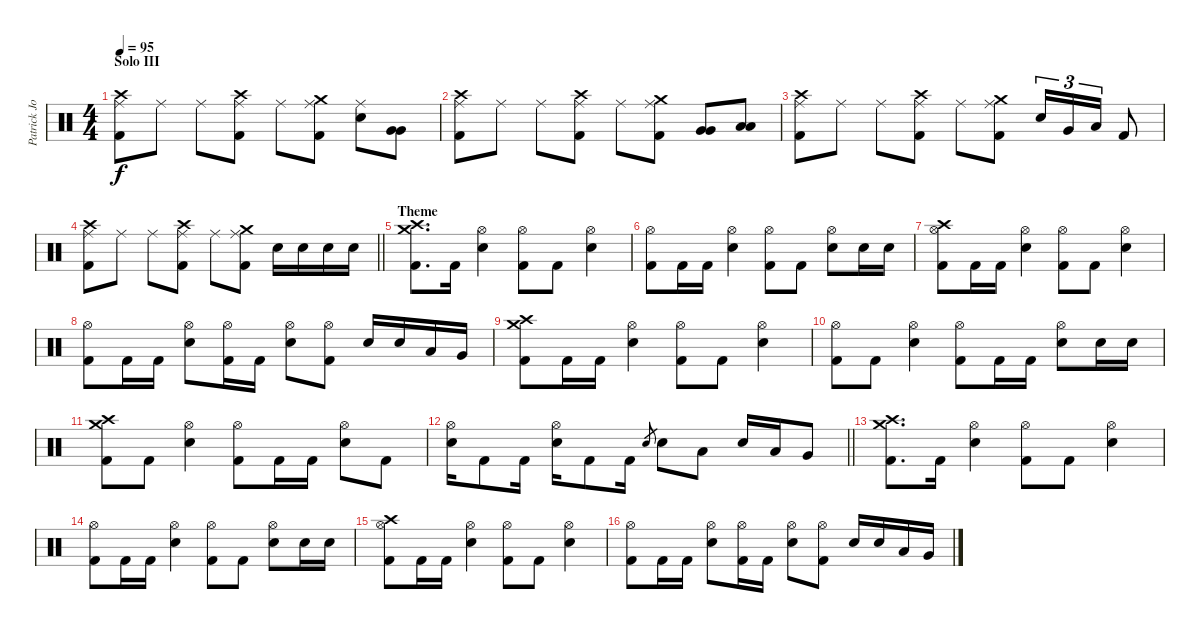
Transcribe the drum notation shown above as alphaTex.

\track ("Patrick Johansson" "Patrick Jo") {instrument percussion}
\staff {score}
\articulation defaults
\ts (4 4)
\section ("" "Solo III")
\tempo 95
\clef neutral
\ks c
("Crash high (hit)" "Ride (middle)" "Kick (hit) 2").8{dy f} "Ride (middle)".8 "Ride (middle)".8 ("Crash high (hit)" "Ride (middle)" "Kick (hit) 2").8 "Ride (middle)".8 ("Crash medium (hit)" "Ride (middle)" "Kick (hit) 2").8 ("Ride (middle)" "Snare (hit) 2").8 ("Very Low Tom (hit)" "Very Low Tom (hit)").8 |
("Crash high (hit)" "Ride (middle)" "Kick (hit) 2").8 "Ride (middle)".8 "Ride (middle)".8 ("Crash high (hit)" "Ride (middle)" "Kick (hit) 2").8 "Ride (middle)".8 ("Crash medium (hit)" "Ride (middle)" "Kick (hit) 2").8 ("Very Low Tom (hit)" "Very Low Tom (hit)").8 ("Low Floor Tom (hit)" "Low Floor Tom (hit)").8 |
("Crash high (hit)" "Ride (middle)" "Kick (hit) 2").8 "Ride (middle)".8 "Ride (middle)".8 ("Crash high (hit)" "Ride (middle)" "Kick (hit) 2").8 "Ride (middle)".8 ("Crash medium (hit)" "Ride (middle)" "Kick (hit) 2").8 "Snare (hit) 2".16{tu (3 2)} "Very Low Tom (hit)".16{tu (3 2)} "Low Floor Tom (hit)".16{tu (3 2)} "Kick (hit) 2".8 |
\barLineRight lightlight
("Crash high (hit)" "Ride (middle)" "Kick (hit) 2").8 "Ride (middle)".8 "Ride (middle)".8 ("Crash high (hit)" "Ride (middle)" "Kick (hit) 2").8 "Ride (middle)".8 ("Crash medium (hit)" "Ride (middle)" "Kick (hit) 2").8 "Snare (hit) 2".16 "Snare (hit) 2".16 "Snare (hit) 2".16 "Snare (hit) 2".16 |
\section ("" "Theme")
("Crash high (hit)" "Crash medium (hit)" "Kick (hit) 2").8{d} "Kick (hit) 2".16 ("Hi-Hat (open)" "Snare (hit) 2").4 ("Hi-Hat (open)" "Kick (hit) 2").8 "Kick (hit) 2".8 ("Hi-Hat (open)" "Snare (hit) 2").4 |
("Hi-Hat (open)" "Kick (hit) 2").8 "Kick (hit) 2".16 "Kick (hit) 2".16 ("Hi-Hat (open)" "Snare (hit) 2").4 ("Hi-Hat (open)" "Kick (hit) 2").8 "Kick (hit) 2".8 ("Hi-Hat (open)" "Snare (hit) 2").8 "Snare (hit) 2".16 "Snare (hit) 2".16 |
("Crash high (hit)" "Hi-Hat (open)" "Kick (hit) 2").8 "Kick (hit) 2".16 "Kick (hit) 2".16 ("Hi-Hat (open)" "Snare (hit) 2").4 ("Hi-Hat (open)" "Kick (hit) 2").8 "Kick (hit) 2".8 ("Hi-Hat (open)" "Snare (hit) 2").4 |
("Hi-Hat (open)" "Kick (hit) 2").8 "Kick (hit) 2".16 "Kick (hit) 2".16 ("Hi-Hat (open)" "Snare (hit) 2").8 ("Hi-Hat (open)" "Kick (hit) 2").16 "Kick (hit) 2".16 ("Hi-Hat (open)" "Snare (hit) 2").8 ("Hi-Hat (open)" "Kick (hit) 2").8 "Snare (hit) 2".16 "Snare (hit) 2".16 "Low Tom (hit)".16 "Very Low Tom (hit)".16 |
("Crash high (hit)" "Crash medium (hit)" "Kick (hit) 2").8 "Kick (hit) 2".16 "Kick (hit) 2".16 ("Hi-Hat (open)" "Snare (hit) 2").4 ("Hi-Hat (open)" "Kick (hit) 2").8 "Kick (hit) 2".8 ("Hi-Hat (open)" "Snare (hit) 2").4 |
("Hi-Hat (open)" "Kick (hit) 2").8 "Kick (hit) 2".8 ("Hi-Hat (open)" "Snare (hit) 2").4 ("Hi-Hat (open)" "Kick (hit) 2").8 "Kick (hit) 2".16 "Kick (hit) 2".16 ("Hi-Hat (open)" "Snare (hit) 2").8 "Snare (hit) 2".16 "Snare (hit) 2".16 |
("Crash medium (hit)" "Crash high (hit)" "Kick (hit) 2").8 "Kick (hit) 2".8 ("Hi-Hat (open)" "Snare (hit) 2").4 ("Hi-Hat (open)" "Kick (hit) 2").8 "Kick (hit) 2".16 "Kick (hit) 2".16 ("Hi-Hat (open)" "Snare (hit) 2").8 "Kick (hit) 2".8 |
\barLineRight lightlight
("Hi-Hat (open)" "Snare (hit) 2").16 "Kick (hit) 2".8 "Kick (hit) 2".16 ("Hi-Hat (open)" "Snare (hit) 2").16 "Kick (hit) 2".8 "Kick (hit) 2".16 "Snare (hit) 2".8{gr} "Snare (hit) 2".8 "Low Floor Tom (hit)".8 "Snare (hit) 2".16 "Low Tom (hit)".16 "Very Low Tom (hit)".8 |
("Crash high (hit)" "Crash medium (hit)" "Kick (hit) 2").8{d} "Kick (hit) 2".16 ("Hi-Hat (open)" "Snare (hit) 2").4 ("Hi-Hat (open)" "Kick (hit) 2").8 "Kick (hit) 2".8 ("Hi-Hat (open)" "Snare (hit) 2").4 |
("Hi-Hat (open)" "Kick (hit) 2").8 "Kick (hit) 2".16 "Kick (hit) 2".16 ("Hi-Hat (open)" "Snare (hit) 2").4 ("Hi-Hat (open)" "Kick (hit) 2").8 "Kick (hit) 2".8 ("Hi-Hat (open)" "Snare (hit) 2").8 "Snare (hit) 2".16 "Snare (hit) 2".16 |
("Crash high (hit)" "Hi-Hat (open)" "Kick (hit) 2").8 "Kick (hit) 2".16 "Kick (hit) 2".16 ("Hi-Hat (open)" "Snare (hit) 2").4 ("Hi-Hat (open)" "Kick (hit) 2").8 "Kick (hit) 2".8 ("Hi-Hat (open)" "Snare (hit) 2").4 |
("Hi-Hat (open)" "Kick (hit) 2").8 "Kick (hit) 2".16 "Kick (hit) 2".16 ("Hi-Hat (open)" "Snare (hit) 2").8 ("Hi-Hat (open)" "Kick (hit) 2").16 "Kick (hit) 2".16 ("Hi-Hat (open)" "Snare (hit) 2").8 ("Hi-Hat (open)" "Kick (hit) 2").8 "Snare (hit) 2".16 "Snare (hit) 2".16 "Low Tom (hit)".16 "Very Low Tom (hit)".16
